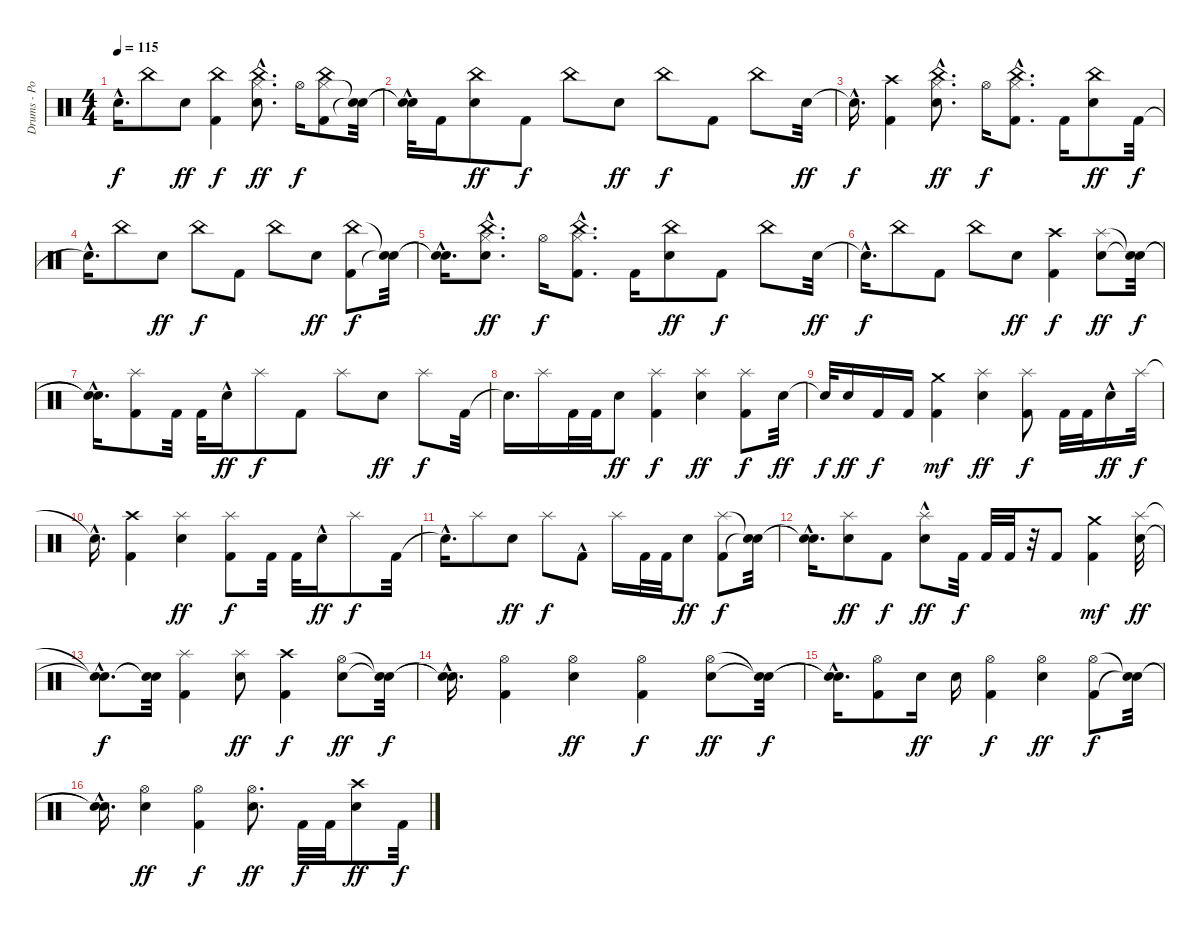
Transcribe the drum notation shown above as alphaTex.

\track ("Drums - Portnoy" "Drums - Po") {instrument percussion}
\staff {score}
\articulation defaults
\ts (4 4)
\tempo 115
\clef neutral
\ks c "Snare (hit)"{hac t}.16{d dy f} "China (hit)".8 "Electric Snare (hit)".8{dy ff}
("Kick (hit) 2" "China (hit)").4{dy f} ("Hi-Hat (closed)"{hac} "Electric Snare (hit)"{hac} "China (hit)").8{d dy ff} "Hi-Hat (open)".16{dy f} ("Hi-Hat (closed)" "Kick (hit) 2" "China (hit)").8 ("Snare (hit)"{t} "Snare (hit)"{t}).32 |
("Snare (hit)"{t} "Snare (hit)"{hac t}).32 "Kick (hit) 2".16 ("Electric Snare (hit)" "China (hit)").8{dy ff} "Kick (hit) 2".8{dy f} "China (hit)".8 "Electric Snare (hit)".8{dy ff} "China (hit)".8{dy f} "Kick (hit) 2".8 "China (hit)".8 "Electric Snare (hit)".32{dy ff} |
"Snare (hit)"{hac t}.16{d dy f} ("Kick (hit) 2" "Crash high (hit)").4 ("Hi-Hat (closed)"{hac} "Electric Snare (hit)"{hac} "China (hit)").8{d dy ff} "Hi-Hat (open)".16{dy f} ("Hi-Hat (closed)" "Kick (hit) 2"{hac} "China (hit)").8{d} "Kick (hit) 2".16 ("Electric Snare (hit)" "China (hit)").8{dy ff} "Kick (hit) 2".32{dy f} |
"Snare (hit)"{hac t}.16{d} "China (hit)".8 "Electric Snare (hit)".8{dy ff} "China (hit)".8{dy f} "Kick (hit) 2".8 "China (hit)".8 "Electric Snare (hit)".8{dy ff} ("Kick (hit) 2" "China (hit)").8{dy f} ("Snare (hit)"{t} "Snare (hit)"{t}).32 |
("Snare (hit)"{hac t} "Snare (hit)"{hac t}).16{d} ("Hi-Hat (closed)"{hac} "Electric Snare (hit)"{hac} "China (hit)").8{d dy ff} "Hi-Hat (open)".16{dy f} ("Hi-Hat (closed)" "Kick (hit) 2"{hac} "China (hit)").8{d} "Kick (hit) 2".16 ("Electric Snare (hit)" "China (hit)").8{dy ff} "Kick (hit) 2".8{dy f} "China (hit)".8 "Electric Snare (hit)".32{dy ff} |
"Snare (hit)"{hac t}.16{d dy f} "China (hit)".8 "Kick (hit) 2".8 "China (hit)".8 "Electric Snare (hit)".8{dy ff} ("Kick (hit) 2" "Crash high (hit)").4{dy f} ("Splash (hit)" "Electric Snare (hit)").8{dy ff} ("Snare (hit)"{t} "Snare (hit)"{t}).32{dy f} |
("Snare (hit)"{hac t} "Snare (hit)"{hac t}).16{d} ("Kick (hit) 2" "Splash (hit)").8 "Kick (hit) 2".32 "Kick (hit) 2".32 "Electric Snare (hit)"{hac}.16{dy ff} "Splash (hit)".8{dy f} "Kick (hit) 2".8 "Splash (hit)".8 "Electric Snare (hit)".8{dy ff} "Splash (hit)".8{dy f} "Kick (hit) 2".32 |
"Snare (hit)"{t}.16{d} "Splash (hit)".16 "Kick (hit) 2".32 "Kick (hit) 2".32 "Electric Snare (hit)".8{dy ff} ("Kick (hit) 2" "Splash (hit)").4{dy f} ("Splash (hit)" "Electric Snare (hit)").4{dy ff} ("Kick (hit) 2" "Splash (hit)").8{dy f} "Electric Snare (hit)".32{dy ff} |
"Snare (hit)"{t}.32{dy f} "Electric Snare (hit)".16{dy ff} "Kick (hit) 2".16{dy f} "Kick (hit) 2".16 ("Kick (hit) 2" "Crash medium (hit)").4{dy mf} ("Splash (hit)" "Electric Snare (hit)").4{dy ff} ("Kick (hit) 2" "Splash (hit)").8{dy f} "Kick (hit) 2".32 "Kick (hit) 2".32 "Electric Snare (hit)"{hac}.16{dy ff} "Splash (hit)".32{dy f} |
"Snare (hit)"{hac t}.16{d} ("Crash high (hit)" "Kick (hit) 2").4 ("Splash (hit)" "Electric Snare (hit)").4{dy ff} ("Kick (hit) 2" "Splash (hit)").8{dy f} "Kick (hit) 2".32 "Kick (hit) 2".32 "Electric Snare (hit)"{hac}.16{dy ff} "Splash (hit)".8{dy f} "Kick (hit) 2".32 |
"Snare (hit)"{hac t}.16{d} "Splash (hit)".8 "Electric Snare (hit)".8{dy ff} "Splash (hit)".8{dy f} "Kick (hit) 2"{hac}.8 "Splash (hit)".16 "Kick (hit) 2".32 "Kick (hit) 2".32 "Electric Snare (hit)".8{dy ff} ("Kick (hit) 2" "Splash (hit)").8{dy f} ("Snare (hit)"{t} "Snare (hit)"{t}).32 |
("Snare (hit)"{hac t} "Snare (hit)"{hac t}).16{d} ("Splash (hit)" "Electric Snare (hit)").8{dy ff} "Kick (hit) 2".8{dy f} ("Splash (hit)"{hac} "Electric Snare (hit)").8{dy ff} "Kick (hit) 2".32{dy f} "Kick (hit) 2".32 "Kick (hit) 2".32 r.32 "Kick (hit) 2".8 ("Kick (hit) 2" "Crash medium (hit)").4{dy mf} ("Splash (hit)" "Electric Snare (hit)").32{dy ff} |
("Snare (hit)"{hac t} "Snare (hit)"{hac t}).8{d dy f} ("Snare (hit)"{t} "Snare (hit)"{t}).32 ("Splash (hit)" "Kick (hit) 2").4 ("Splash (hit)" "Electric Snare (hit)").8{dy ff} ("Kick (hit) 2" "Crash high (hit)").4{dy f} ("Hi-Hat (open)" "Electric Snare (hit)").8{dy ff} ("Snare (hit)"{t} "Snare (hit)"{t}).32{dy f} |
("Snare (hit)"{hac t} "Snare (hit)"{hac t}).16{d} ("Kick (hit) 2" "Hi-Hat (open)").4 ("Hi-Hat (open)" "Electric Snare (hit)").4{dy ff} ("Kick (hit) 2" "Hi-Hat (open)").4{dy f} ("Hi-Hat (open)" "Electric Snare (hit)").8{dy ff} ("Snare (hit)"{t} "Snare (hit)"{t}).32{dy f} |
("Snare (hit)"{hac t} "Snare (hit)"{hac t}).16{d} ("Kick (hit) 2" "Hi-Hat (open)").8 "Electric Snare (hit)".16{dy ff} "Electric Snare (hit)".16 ("Kick (hit) 2" "Hi-Hat (open)").4{dy f} ("Hi-Hat (open)" "Electric Snare (hit)").4{dy ff} ("Kick (hit) 2" "Hi-Hat (open)").8{dy f} ("Snare (hit)"{t} "Snare (hit)"{t}).32 |
("Snare (hit)"{hac t} "Snare (hit)"{hac t}).16{d} ("Hi-Hat (open)" "Electric Snare (hit)").4{dy ff} ("Kick (hit) 2" "Hi-Hat (open)").4{dy f} ("Hi-Hat (open)" "Electric Snare (hit)").8{d dy ff} "Kick (hit) 2".32{dy f} "Kick (hit) 2".32 ("Crash high (hit)" "Electric Snare (hit)").8{dy ff} "Kick (hit) 2".32{dy f}
